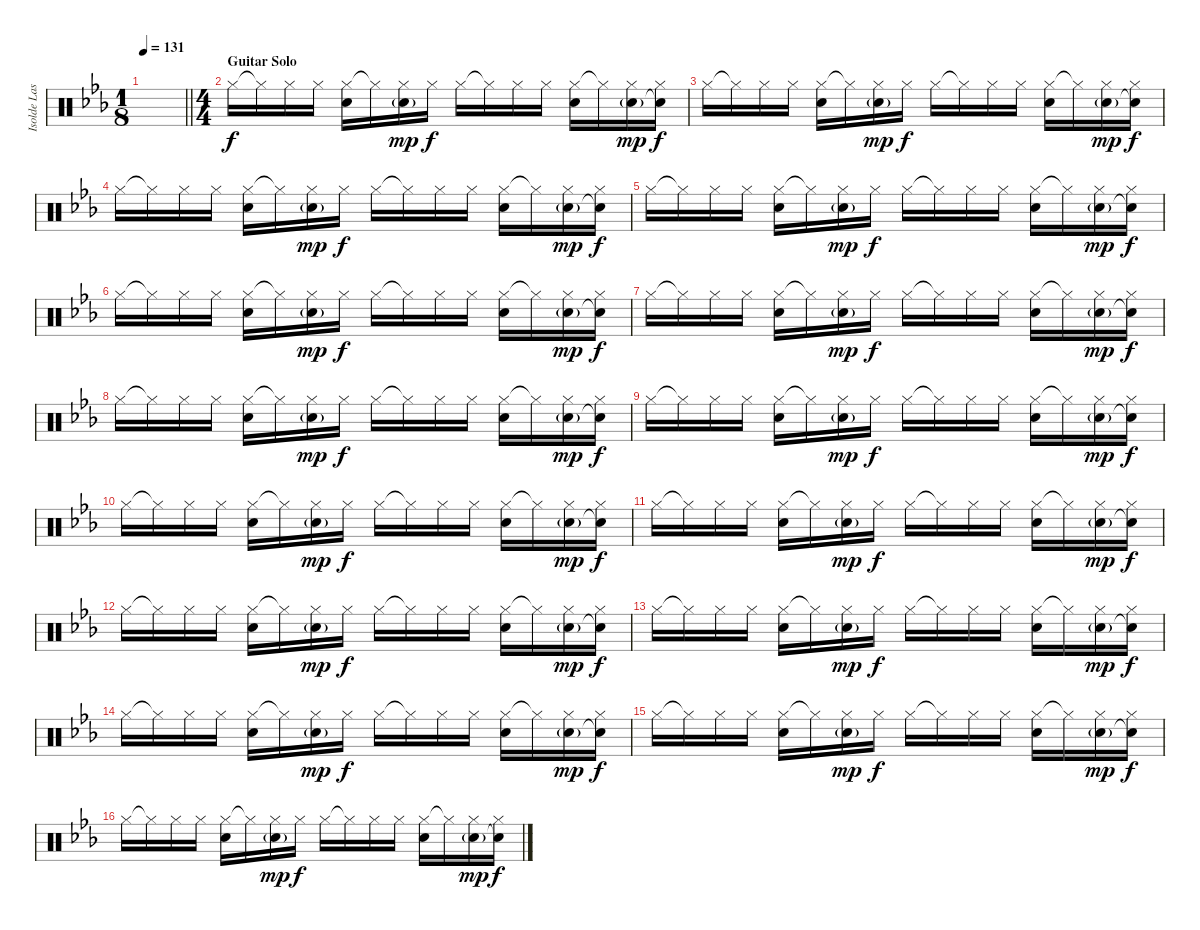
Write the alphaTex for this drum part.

\track ("Isolde Lasoen (Percussion)" "Isolde Las") {instrument percussion}
\staff {score}
\articulation defaults
\ts (1 8)
\tempo 131
\clef neutral
\barLineRight lightlight
\ks cminor
|
\ts (4 4)
\section ("" "Guitar Solo")
"Hi-Hat (closed)".16 "Hi-Hat (closed)"{t}.16 "Hi-Hat (closed)".16 "Hi-Hat (closed)".16 ("Hi-Hat (closed)" "Hand Clap (hit)").16 "Hi-Hat (closed)"{t}.16 ("Hi-Hat (closed)" "Hand Clap (hit)"{g}).16{dy mp} "Hi-Hat (closed)".16{dy f} "Hi-Hat (closed)".16 "Hi-Hat (closed)"{t}.16 "Hi-Hat (closed)".16 "Hi-Hat (closed)".16 ("Hi-Hat (closed)" "Hand Clap (hit)").16 "Hi-Hat (closed)"{t}.16 ("Hi-Hat (closed)" "Hand Clap (hit)"{g}).16{dy mp} ("Hi-Hat (closed)" "Snare (hit)"{t}).16{dy f} |
"Hi-Hat (closed)".16 "Hi-Hat (closed)"{t}.16 "Hi-Hat (closed)".16 "Hi-Hat (closed)".16 ("Hi-Hat (closed)" "Hand Clap (hit)").16 "Hi-Hat (closed)"{t}.16 ("Hi-Hat (closed)" "Hand Clap (hit)"{g}).16{dy mp} "Hi-Hat (closed)".16{dy f} "Hi-Hat (closed)".16 "Hi-Hat (closed)"{t}.16 "Hi-Hat (closed)".16 "Hi-Hat (closed)".16 ("Hi-Hat (closed)" "Hand Clap (hit)").16 "Hi-Hat (closed)"{t}.16 ("Hi-Hat (closed)" "Hand Clap (hit)"{g}).16{dy mp} ("Hi-Hat (closed)" "Snare (hit)"{t}).16{dy f} |
"Hi-Hat (closed)".16 "Hi-Hat (closed)"{t}.16 "Hi-Hat (closed)".16 "Hi-Hat (closed)".16 ("Hi-Hat (closed)" "Hand Clap (hit)").16 "Hi-Hat (closed)"{t}.16 ("Hi-Hat (closed)" "Hand Clap (hit)"{g}).16{dy mp} "Hi-Hat (closed)".16{dy f} "Hi-Hat (closed)".16 "Hi-Hat (closed)"{t}.16 "Hi-Hat (closed)".16 "Hi-Hat (closed)".16 ("Hi-Hat (closed)" "Hand Clap (hit)").16 "Hi-Hat (closed)"{t}.16 ("Hi-Hat (closed)" "Hand Clap (hit)"{g}).16{dy mp} ("Hi-Hat (closed)" "Snare (hit)"{t}).16{dy f} |
"Hi-Hat (closed)".16 "Hi-Hat (closed)"{t}.16 "Hi-Hat (closed)".16 "Hi-Hat (closed)".16 ("Hi-Hat (closed)" "Hand Clap (hit)").16 "Hi-Hat (closed)"{t}.16 ("Hi-Hat (closed)" "Hand Clap (hit)"{g}).16{dy mp} "Hi-Hat (closed)".16{dy f} "Hi-Hat (closed)".16 "Hi-Hat (closed)"{t}.16 "Hi-Hat (closed)".16 "Hi-Hat (closed)".16 ("Hi-Hat (closed)" "Hand Clap (hit)").16 "Hi-Hat (closed)"{t}.16 ("Hi-Hat (closed)" "Hand Clap (hit)"{g}).16{dy mp} ("Hi-Hat (closed)" "Snare (hit)"{t}).16{dy f} |
"Hi-Hat (closed)".16 "Hi-Hat (closed)"{t}.16 "Hi-Hat (closed)".16 "Hi-Hat (closed)".16 ("Hi-Hat (closed)" "Hand Clap (hit)").16 "Hi-Hat (closed)"{t}.16 ("Hi-Hat (closed)" "Hand Clap (hit)"{g}).16{dy mp} "Hi-Hat (closed)".16{dy f} "Hi-Hat (closed)".16 "Hi-Hat (closed)"{t}.16 "Hi-Hat (closed)".16 "Hi-Hat (closed)".16 ("Hi-Hat (closed)" "Hand Clap (hit)").16 "Hi-Hat (closed)"{t}.16 ("Hi-Hat (closed)" "Hand Clap (hit)"{g}).16{dy mp} ("Hi-Hat (closed)" "Snare (hit)"{t}).16{dy f} |
"Hi-Hat (closed)".16 "Hi-Hat (closed)"{t}.16 "Hi-Hat (closed)".16 "Hi-Hat (closed)".16 ("Hi-Hat (closed)" "Hand Clap (hit)").16 "Hi-Hat (closed)"{t}.16 ("Hi-Hat (closed)" "Hand Clap (hit)"{g}).16{dy mp} "Hi-Hat (closed)".16{dy f} "Hi-Hat (closed)".16 "Hi-Hat (closed)"{t}.16 "Hi-Hat (closed)".16 "Hi-Hat (closed)".16 ("Hi-Hat (closed)" "Hand Clap (hit)").16 "Hi-Hat (closed)"{t}.16 ("Hi-Hat (closed)" "Hand Clap (hit)"{g}).16{dy mp} ("Hi-Hat (closed)" "Snare (hit)"{t}).16{dy f} |
"Hi-Hat (closed)".16 "Hi-Hat (closed)"{t}.16 "Hi-Hat (closed)".16 "Hi-Hat (closed)".16 ("Hi-Hat (closed)" "Hand Clap (hit)").16 "Hi-Hat (closed)"{t}.16 ("Hi-Hat (closed)" "Hand Clap (hit)"{g}).16{dy mp} "Hi-Hat (closed)".16{dy f} "Hi-Hat (closed)".16 "Hi-Hat (closed)"{t}.16 "Hi-Hat (closed)".16 "Hi-Hat (closed)".16 ("Hi-Hat (closed)" "Hand Clap (hit)").16 "Hi-Hat (closed)"{t}.16 ("Hi-Hat (closed)" "Hand Clap (hit)"{g}).16{dy mp} ("Hi-Hat (closed)" "Snare (hit)"{t}).16{dy f} |
"Hi-Hat (closed)".16 "Hi-Hat (closed)"{t}.16 "Hi-Hat (closed)".16 "Hi-Hat (closed)".16 ("Hi-Hat (closed)" "Hand Clap (hit)").16 "Hi-Hat (closed)"{t}.16 ("Hi-Hat (closed)" "Hand Clap (hit)"{g}).16{dy mp} "Hi-Hat (closed)".16{dy f} "Hi-Hat (closed)".16 "Hi-Hat (closed)"{t}.16 "Hi-Hat (closed)".16 "Hi-Hat (closed)".16 ("Hi-Hat (closed)" "Hand Clap (hit)").16 "Hi-Hat (closed)"{t}.16 ("Hi-Hat (closed)" "Hand Clap (hit)"{g}).16{dy mp} ("Hi-Hat (closed)" "Snare (hit)"{t}).16{dy f} |
"Hi-Hat (closed)".16 "Hi-Hat (closed)"{t}.16 "Hi-Hat (closed)".16 "Hi-Hat (closed)".16 ("Hi-Hat (closed)" "Hand Clap (hit)").16 "Hi-Hat (closed)"{t}.16 ("Hi-Hat (closed)" "Hand Clap (hit)"{g}).16{dy mp} "Hi-Hat (closed)".16{dy f} "Hi-Hat (closed)".16 "Hi-Hat (closed)"{t}.16 "Hi-Hat (closed)".16 "Hi-Hat (closed)".16 ("Hi-Hat (closed)" "Hand Clap (hit)").16 "Hi-Hat (closed)"{t}.16 ("Hi-Hat (closed)" "Hand Clap (hit)"{g}).16{dy mp} ("Hi-Hat (closed)" "Snare (hit)"{t}).16{dy f} |
"Hi-Hat (closed)".16 "Hi-Hat (closed)"{t}.16 "Hi-Hat (closed)".16 "Hi-Hat (closed)".16 ("Hi-Hat (closed)" "Hand Clap (hit)").16 "Hi-Hat (closed)"{t}.16 ("Hi-Hat (closed)" "Hand Clap (hit)"{g}).16{dy mp} "Hi-Hat (closed)".16{dy f} "Hi-Hat (closed)".16 "Hi-Hat (closed)"{t}.16 "Hi-Hat (closed)".16 "Hi-Hat (closed)".16 ("Hi-Hat (closed)" "Hand Clap (hit)").16 "Hi-Hat (closed)"{t}.16 ("Hi-Hat (closed)" "Hand Clap (hit)"{g}).16{dy mp} ("Hi-Hat (closed)" "Snare (hit)"{t}).16{dy f} |
"Hi-Hat (closed)".16 "Hi-Hat (closed)"{t}.16 "Hi-Hat (closed)".16 "Hi-Hat (closed)".16 ("Hi-Hat (closed)" "Hand Clap (hit)").16 "Hi-Hat (closed)"{t}.16 ("Hi-Hat (closed)" "Hand Clap (hit)"{g}).16{dy mp} "Hi-Hat (closed)".16{dy f} "Hi-Hat (closed)".16 "Hi-Hat (closed)"{t}.16 "Hi-Hat (closed)".16 "Hi-Hat (closed)".16 ("Hi-Hat (closed)" "Hand Clap (hit)").16 "Hi-Hat (closed)"{t}.16 ("Hi-Hat (closed)" "Hand Clap (hit)"{g}).16{dy mp} ("Hi-Hat (closed)" "Snare (hit)"{t}).16{dy f} |
"Hi-Hat (closed)".16 "Hi-Hat (closed)"{t}.16 "Hi-Hat (closed)".16 "Hi-Hat (closed)".16 ("Hi-Hat (closed)" "Hand Clap (hit)").16 "Hi-Hat (closed)"{t}.16 ("Hi-Hat (closed)" "Hand Clap (hit)"{g}).16{dy mp} "Hi-Hat (closed)".16{dy f} "Hi-Hat (closed)".16 "Hi-Hat (closed)"{t}.16 "Hi-Hat (closed)".16 "Hi-Hat (closed)".16 ("Hi-Hat (closed)" "Hand Clap (hit)").16 "Hi-Hat (closed)"{t}.16 ("Hi-Hat (closed)" "Hand Clap (hit)"{g}).16{dy mp} ("Hi-Hat (closed)" "Snare (hit)"{t}).16{dy f} |
"Hi-Hat (closed)".16 "Hi-Hat (closed)"{t}.16 "Hi-Hat (closed)".16 "Hi-Hat (closed)".16 ("Hi-Hat (closed)" "Hand Clap (hit)").16 "Hi-Hat (closed)"{t}.16 ("Hi-Hat (closed)" "Hand Clap (hit)"{g}).16{dy mp} "Hi-Hat (closed)".16{dy f} "Hi-Hat (closed)".16 "Hi-Hat (closed)"{t}.16 "Hi-Hat (closed)".16 "Hi-Hat (closed)".16 ("Hi-Hat (closed)" "Hand Clap (hit)").16 "Hi-Hat (closed)"{t}.16 ("Hi-Hat (closed)" "Hand Clap (hit)"{g}).16{dy mp} ("Hi-Hat (closed)" "Snare (hit)"{t}).16{dy f} |
"Hi-Hat (closed)".16 "Hi-Hat (closed)"{t}.16 "Hi-Hat (closed)".16 "Hi-Hat (closed)".16 ("Hi-Hat (closed)" "Hand Clap (hit)").16 "Hi-Hat (closed)"{t}.16 ("Hi-Hat (closed)" "Hand Clap (hit)"{g}).16{dy mp} "Hi-Hat (closed)".16{dy f} "Hi-Hat (closed)".16 "Hi-Hat (closed)"{t}.16 "Hi-Hat (closed)".16 "Hi-Hat (closed)".16 ("Hi-Hat (closed)" "Hand Clap (hit)").16 "Hi-Hat (closed)"{t}.16 ("Hi-Hat (closed)" "Hand Clap (hit)"{g}).16{dy mp} ("Hi-Hat (closed)" "Snare (hit)"{t}).16{dy f} |
"Hi-Hat (closed)".16 "Hi-Hat (closed)"{t}.16 "Hi-Hat (closed)".16 "Hi-Hat (closed)".16 ("Hi-Hat (closed)" "Hand Clap (hit)").16 "Hi-Hat (closed)"{t}.16 ("Hi-Hat (closed)" "Hand Clap (hit)"{g}).16{dy mp} "Hi-Hat (closed)".16{dy f} "Hi-Hat (closed)".16 "Hi-Hat (closed)"{t}.16 "Hi-Hat (closed)".16 "Hi-Hat (closed)".16 ("Hi-Hat (closed)" "Hand Clap (hit)").16 "Hi-Hat (closed)"{t}.16 ("Hi-Hat (closed)" "Hand Clap (hit)"{g}).16{dy mp} ("Hi-Hat (closed)" "Snare (hit)"{t}).16{dy f}
